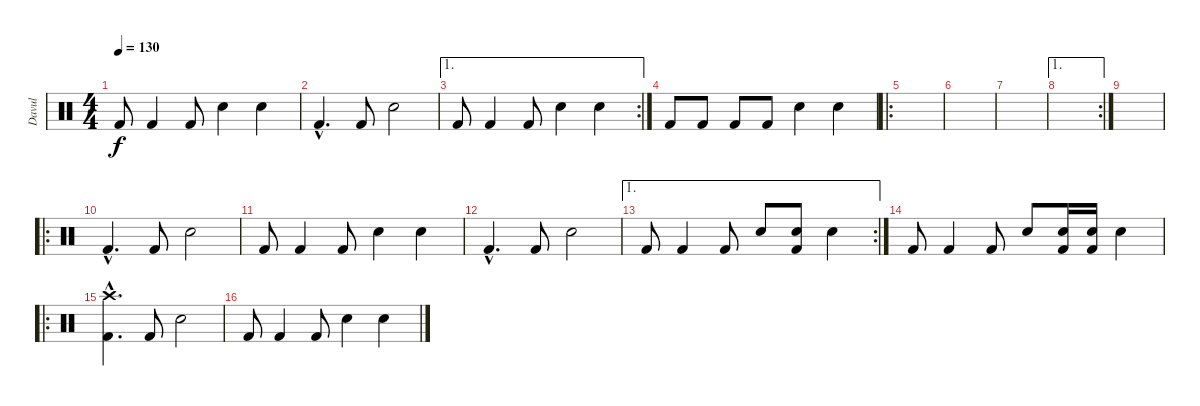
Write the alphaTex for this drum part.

\track ("Davul" "Davul") {instrument percussion}
\staff {score}
\articulation defaults
\ts (4 4)
\tempo 130
\clef neutral
\ks c "Kick (hit) 2".8{dy f} "Kick (hit) 2".4 "Kick (hit) 2".8 "Electric Snare (hit)".4 "Electric Snare (hit)".4
|
"Kick (hit) 2"{hac}.4{d} "Kick (hit) 2".8 "Electric Snare (hit)".2 |
\ae 1
\rc 2 "Kick (hit) 2".8 "Kick (hit) 2".4 "Kick (hit) 2".8 "Electric Snare (hit)".4 "Electric Snare (hit)".4
|
"Kick (hit) 2".8 "Kick (hit) 2".8 "Kick (hit) 2".8 "Kick (hit) 2".8 "Electric Snare (hit)".4 "Electric Snare (hit)".4 |
\ro
|
|
|
\ae 1
\rc 2
|
|
\ro "Kick (hit) 2"{hac}.4{d} "Kick (hit) 2".8 "Electric Snare (hit)".2
|
"Kick (hit) 2".8 "Kick (hit) 2".4 "Kick (hit) 2".8 "Electric Snare (hit)".4 "Electric Snare (hit)".4 |
"Kick (hit) 2"{hac}.4{d} "Kick (hit) 2".8 "Electric Snare (hit)".2 |
\ae 1
\rc 2 "Kick (hit) 2".8 "Kick (hit) 2".4 "Kick (hit) 2".8 "Electric Snare (hit)".8
("Electric Snare (hit)" "Kick (hit) 2").8 "Electric Snare (hit)".4 |
"Kick (hit) 2".8 "Kick (hit) 2".4 "Kick (hit) 2".8 "Electric Snare (hit)".8 ("Electric Snare (hit)" "Kick (hit) 2").16 ("Electric Snare (hit)" "Kick (hit) 2").16 "Electric Snare (hit)".4 |
\ro
("Kick (hit) 2"{hac} "Crash high (hit)"{hac}).4{d} "Kick (hit) 2".8 "Electric Snare (hit)".2 |
"Kick (hit) 2".8 "Kick (hit) 2".4 "Kick (hit) 2".8 "Electric Snare (hit)".4 "Electric Snare (hit)".4
